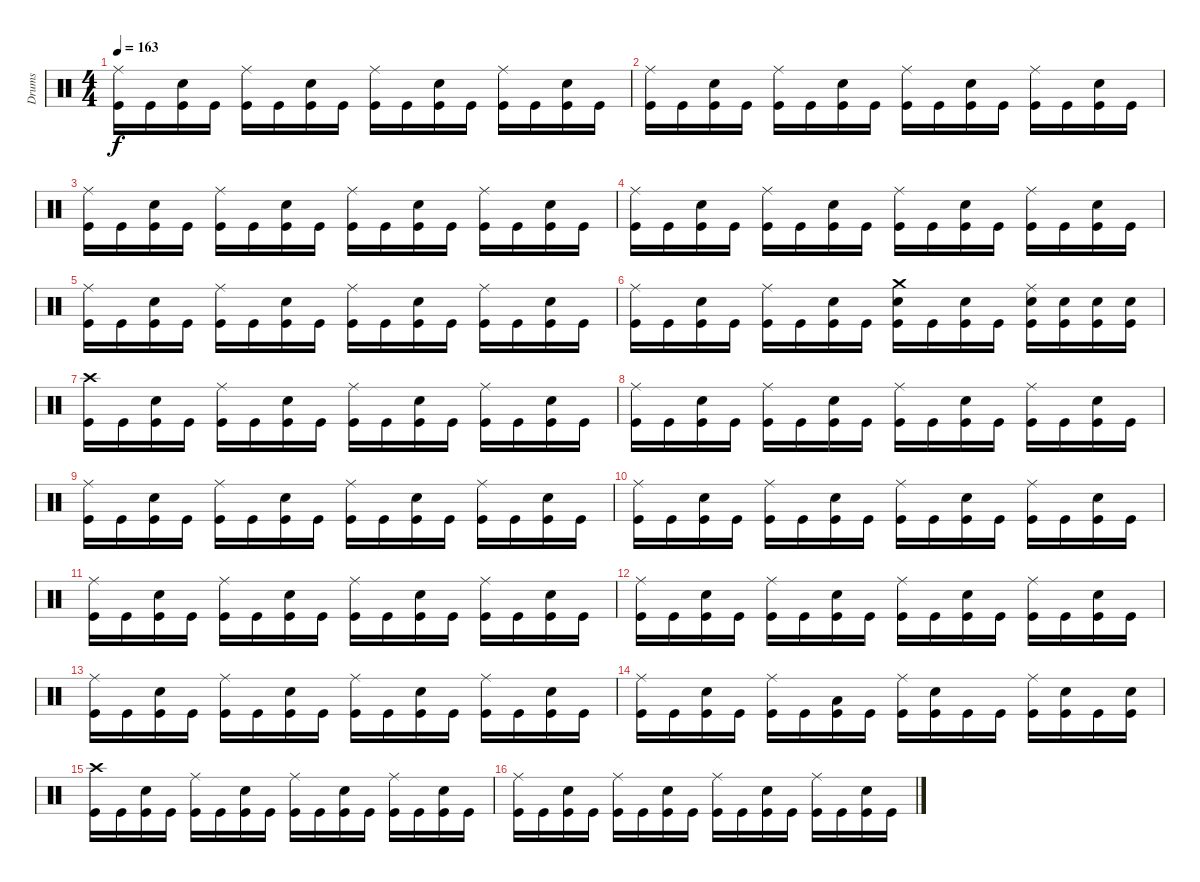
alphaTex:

\track ("Drums" "Drums") {instrument percussion}
\staff {score}
\articulation defaults
\ts (4 4)
\tempo 163
\clef neutral
\ks c
("Ride (middle)" "Kick (hit)").16{dy f} "Kick (hit)".16 ("Electric Snare (hit)" "Kick (hit)").16 "Kick (hit)".16 ("Ride (middle)" "Kick (hit)").16 "Kick (hit)".16 ("Electric Snare (hit)" "Kick (hit)").16 "Kick (hit)".16 ("Ride (middle)" "Kick (hit)").16 "Kick (hit)".16 ("Electric Snare (hit)" "Kick (hit)").16 "Kick (hit)".16 ("Ride (middle)" "Kick (hit)").16 "Kick (hit)".16 ("Electric Snare (hit)" "Kick (hit)").16 "Kick (hit)".16 |
("Ride (middle)" "Kick (hit)").16 "Kick (hit)".16 ("Electric Snare (hit)" "Kick (hit)").16 "Kick (hit)".16 ("Ride (middle)" "Kick (hit)").16 "Kick (hit)".16 ("Electric Snare (hit)" "Kick (hit)").16 "Kick (hit)".16 ("Ride (middle)" "Kick (hit)").16 "Kick (hit)".16 ("Electric Snare (hit)" "Kick (hit)").16 "Kick (hit)".16 ("Ride (middle)" "Kick (hit)").16 "Kick (hit)".16 ("Electric Snare (hit)" "Kick (hit)").16 "Kick (hit)".16 |
("Ride (middle)" "Kick (hit)").16 "Kick (hit)".16 ("Electric Snare (hit)" "Kick (hit)").16 "Kick (hit)".16 ("Ride (middle)" "Kick (hit)").16 "Kick (hit)".16 ("Electric Snare (hit)" "Kick (hit)").16 "Kick (hit)".16 ("Ride (middle)" "Kick (hit)").16 "Kick (hit)".16 ("Electric Snare (hit)" "Kick (hit)").16 "Kick (hit)".16 ("Ride (middle)" "Kick (hit)").16 "Kick (hit)".16 ("Electric Snare (hit)" "Kick (hit)").16 "Kick (hit)".16 |
("Ride (middle)" "Kick (hit)").16 "Kick (hit)".16 ("Electric Snare (hit)" "Kick (hit)").16 "Kick (hit)".16 ("Ride (middle)" "Kick (hit)").16 "Kick (hit)".16 ("Electric Snare (hit)" "Kick (hit)").16 "Kick (hit)".16 ("Ride (middle)" "Kick (hit)").16 "Kick (hit)".16 ("Electric Snare (hit)" "Kick (hit)").16 "Kick (hit)".16 ("Ride (middle)" "Kick (hit)").16 "Kick (hit)".16 ("Electric Snare (hit)" "Kick (hit)").16 "Kick (hit)".16 |
("Ride (middle)" "Kick (hit)").16 "Kick (hit)".16 ("Electric Snare (hit)" "Kick (hit)").16 "Kick (hit)".16 ("Ride (middle)" "Kick (hit)").16 "Kick (hit)".16 ("Electric Snare (hit)" "Kick (hit)").16 "Kick (hit)".16 ("Ride (middle)" "Kick (hit)").16 "Kick (hit)".16 ("Electric Snare (hit)" "Kick (hit)").16 "Kick (hit)".16 ("Ride (middle)" "Kick (hit)").16 "Kick (hit)".16 ("Electric Snare (hit)" "Kick (hit)").16 "Kick (hit)".16 |
("Ride (middle)" "Kick (hit)").16 "Kick (hit)".16 ("Electric Snare (hit)" "Kick (hit)").16 "Kick (hit)".16 ("Ride (middle)" "Kick (hit)").16 "Kick (hit)".16 ("Electric Snare (hit)" "Kick (hit)").16 "Kick (hit)".16 ("Electric Snare (hit)" "Crash medium (hit)" "Kick (hit)").16 "Kick (hit)".16 ("Electric Snare (hit)" "Kick (hit)").16 "Kick (hit)".16 ("Electric Snare (hit)" "Ride (middle)" "Kick (hit)").16 ("Electric Snare (hit)" "Kick (hit)").16 ("Electric Snare (hit)" "Kick (hit)").16 ("Electric Snare (hit)" "Kick (hit)").16 |
("Kick (hit)" "Crash high (hit)").16{volume 14 balance 8} "Kick (hit)".16 ("Electric Snare (hit)" "Kick (hit)").16 "Kick (hit)".16 ("Ride (middle)" "Kick (hit)").16 "Kick (hit)".16 ("Electric Snare (hit)" "Kick (hit)").16 "Kick (hit)".16 ("Ride (middle)" "Kick (hit)").16 "Kick (hit)".16 ("Electric Snare (hit)" "Kick (hit)").16 "Kick (hit)".16 ("Ride (middle)" "Kick (hit)").16 "Kick (hit)".16 ("Electric Snare (hit)" "Kick (hit)").16 "Kick (hit)".16 |
("Ride (middle)" "Kick (hit)").16 "Kick (hit)".16 ("Electric Snare (hit)" "Kick (hit)").16 "Kick (hit)".16 ("Ride (middle)" "Kick (hit)").16 "Kick (hit)".16 ("Electric Snare (hit)" "Kick (hit)").16 "Kick (hit)".16 ("Ride (middle)" "Kick (hit)").16 "Kick (hit)".16 ("Electric Snare (hit)" "Kick (hit)").16 "Kick (hit)".16 ("Ride (middle)" "Kick (hit)").16 "Kick (hit)".16 ("Electric Snare (hit)" "Kick (hit)").16 "Kick (hit)".16 |
("Ride (middle)" "Kick (hit)").16 "Kick (hit)".16 ("Electric Snare (hit)" "Kick (hit)").16 "Kick (hit)".16 ("Ride (middle)" "Kick (hit)").16 "Kick (hit)".16 ("Electric Snare (hit)" "Kick (hit)").16 "Kick (hit)".16 ("Ride (middle)" "Kick (hit)").16 "Kick (hit)".16 ("Electric Snare (hit)" "Kick (hit)").16 "Kick (hit)".16 ("Ride (middle)" "Kick (hit)").16 "Kick (hit)".16 ("Electric Snare (hit)" "Kick (hit)").16 "Kick (hit)".16 |
("Ride (middle)" "Kick (hit)").16 "Kick (hit)".16 ("Electric Snare (hit)" "Kick (hit)").16 "Kick (hit)".16 ("Ride (middle)" "Kick (hit)").16 "Kick (hit)".16 ("Electric Snare (hit)" "Kick (hit)").16 "Kick (hit)".16 ("Ride (middle)" "Kick (hit)").16 "Kick (hit)".16 ("Electric Snare (hit)" "Kick (hit)").16 "Kick (hit)".16 ("Ride (middle)" "Kick (hit)").16 "Kick (hit)".16 ("Electric Snare (hit)" "Kick (hit)").16 "Kick (hit)".16 |
("Ride (middle)" "Kick (hit)").16 "Kick (hit)".16 ("Electric Snare (hit)" "Kick (hit)").16 "Kick (hit)".16 ("Ride (middle)" "Kick (hit)").16 "Kick (hit)".16 ("Electric Snare (hit)" "Kick (hit)").16 "Kick (hit)".16 ("Ride (middle)" "Kick (hit)").16 "Kick (hit)".16 ("Electric Snare (hit)" "Kick (hit)").16 "Kick (hit)".16 ("Ride (middle)" "Kick (hit)").16 "Kick (hit)".16 ("Electric Snare (hit)" "Kick (hit)").16 "Kick (hit)".16 |
("Ride (middle)" "Kick (hit)").16 "Kick (hit)".16 ("Electric Snare (hit)" "Kick (hit)").16 "Kick (hit)".16 ("Ride (middle)" "Kick (hit)").16 "Kick (hit)".16 ("Electric Snare (hit)" "Kick (hit)").16 "Kick (hit)".16 ("Ride (middle)" "Kick (hit)").16 "Kick (hit)".16 ("Electric Snare (hit)" "Kick (hit)").16 "Kick (hit)".16 ("Ride (middle)" "Kick (hit)").16 "Kick (hit)".16 ("Electric Snare (hit)" "Kick (hit)").16 "Kick (hit)".16 |
("Ride (middle)" "Kick (hit)").16 "Kick (hit)".16 ("Electric Snare (hit)" "Kick (hit)").16 "Kick (hit)".16 ("Ride (middle)" "Kick (hit)").16 "Kick (hit)".16 ("Electric Snare (hit)" "Kick (hit)").16 "Kick (hit)".16 ("Ride (middle)" "Kick (hit)").16 "Kick (hit)".16 ("Electric Snare (hit)" "Kick (hit)").16 "Kick (hit)".16 ("Ride (middle)" "Kick (hit)").16 "Kick (hit)".16 ("Electric Snare (hit)" "Kick (hit)").16 "Kick (hit)".16 |
("Ride (middle)" "Kick (hit)").16 "Kick (hit)".16 ("Electric Snare (hit)" "Kick (hit)").16 "Kick (hit)".16 ("Ride (middle)" "Kick (hit)").16 "Kick (hit)".16 ("Low Tom (hit)" "Kick (hit)").16 "Kick (hit)".16 ("Ride (middle)" "Kick (hit)").16 ("Electric Snare (hit)" "Kick (hit)").16 "Kick (hit)".16 "Kick (hit)".16 ("Ride (middle)" "Kick (hit)").16 ("Electric Snare (hit)" "Kick (hit)").16 "Kick (hit)".16 ("Electric Snare (hit)" "Kick (hit)").16 |
("Kick (hit)" "Crash high (hit)").16 "Kick (hit)".16 ("Electric Snare (hit)" "Kick (hit)").16 "Kick (hit)".16 ("Ride (middle)" "Kick (hit)").16 "Kick (hit)".16 ("Electric Snare (hit)" "Kick (hit)").16 "Kick (hit)".16 ("Ride (middle)" "Kick (hit)").16 "Kick (hit)".16 ("Electric Snare (hit)" "Kick (hit)").16 "Kick (hit)".16 ("Ride (middle)" "Kick (hit)").16 "Kick (hit)".16 ("Electric Snare (hit)" "Kick (hit)").16 "Kick (hit)".16 |
("Ride (middle)" "Kick (hit)").16 "Kick (hit)".16 ("Electric Snare (hit)" "Kick (hit)").16 "Kick (hit)".16 ("Ride (middle)" "Kick (hit)").16 "Kick (hit)".16 ("Electric Snare (hit)" "Kick (hit)").16 "Kick (hit)".16 ("Ride (middle)" "Kick (hit)").16 "Kick (hit)".16 ("Electric Snare (hit)" "Kick (hit)").16 "Kick (hit)".16 ("Ride (middle)" "Kick (hit)").16 "Kick (hit)".16 ("Electric Snare (hit)" "Kick (hit)").16 "Kick (hit)".16
